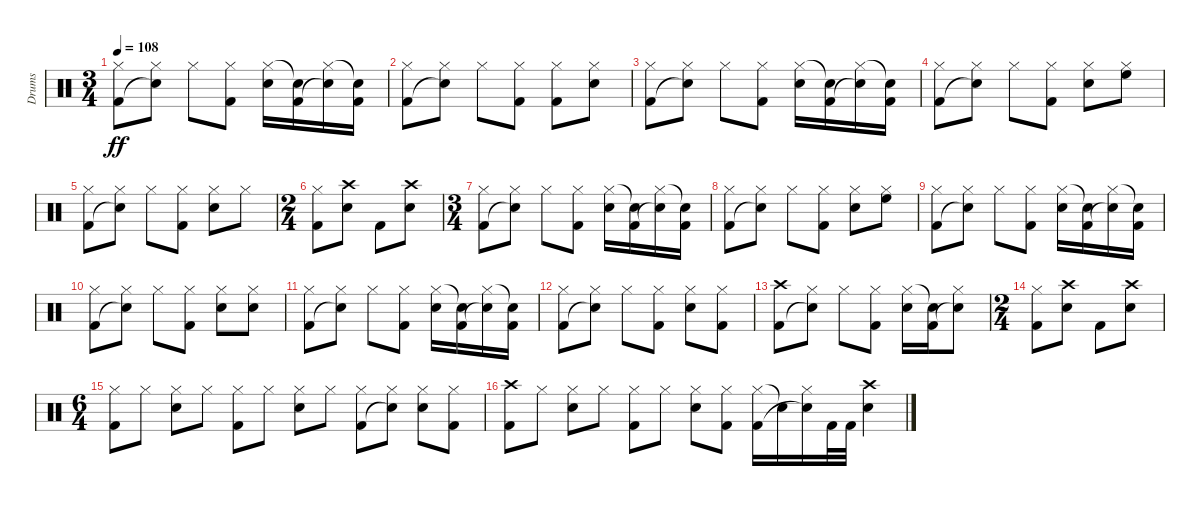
\track ("Drums" "Drums") {instrument percussion}
\staff {score}
\articulation defaults
\ts (3 4)
\tempo 108
\clef neutral
\ks c
("Hi-Hat (closed)" "Kick (hit) 2").8{dy ff} ("Hi-Hat (closed)" "Snare (hit)"{t}).8 "Hi-Hat (closed)".8 ("Hi-Hat (closed)" "Kick (hit) 2").8 ("Hi-Hat (closed)" "Snare (hit) 2").16 ("Snare (hit)"{t} "Kick (hit) 2").16 ("Hi-Hat (closed)" "Snare (hit)"{t}).16 ("Snare (hit)"{t} "Kick (hit) 2").16 |
("Hi-Hat (closed)" "Kick (hit) 2").8 ("Hi-Hat (closed)" "Snare (hit)"{t}).8 "Hi-Hat (closed)".8 ("Hi-Hat (closed)" "Kick (hit) 2").8 ("Hi-Hat (closed)" "Kick (hit) 2").8 ("Hi-Hat (closed)" "Snare (hit) 2").8 |
("Hi-Hat (closed)" "Kick (hit) 2").8 ("Hi-Hat (closed)" "Snare (hit)"{t}).8 "Hi-Hat (closed)".8 ("Hi-Hat (closed)" "Kick (hit) 2").8 ("Hi-Hat (closed)" "Snare (hit) 2").16 ("Snare (hit)"{t} "Kick (hit) 2").16 ("Hi-Hat (closed)" "Snare (hit)"{t}).16 ("Snare (hit)"{t} "Kick (hit) 2").16 |
("Hi-Hat (closed)" "Kick (hit) 2").8 ("Hi-Hat (closed)" "Snare (hit)"{t}).8 "Hi-Hat (closed)".8 ("Hi-Hat (closed)" "Kick (hit) 2").8 ("Hi-Hat (closed)" "Snare (hit) 2").8 ("Hi-Hat (closed)" "High Floor Tom (hit)").8 |
("Hi-Hat (closed)" "Kick (hit) 2").8 ("Hi-Hat (closed)" "Snare (hit)"{t}).8 "Hi-Hat (closed)".8 ("Hi-Hat (closed)" "Kick (hit) 2").8 ("Hi-Hat (closed)" "Snare (hit) 2").8 "Hi-Hat (closed)".8 |
\ts (2 4)
("Hi-Hat (closed)" "Kick (hit) 2").8 ("Crash high (hit)" "Snare (hit) 2").8 "Kick (hit) 2".8 ("Crash high (hit)" "Snare (hit) 2").8 |
\ts (3 4)
("Hi-Hat (closed)" "Kick (hit) 2").8 ("Hi-Hat (closed)" "Snare (hit)"{t}).8 "Hi-Hat (closed)".8 ("Hi-Hat (closed)" "Kick (hit) 2").8 ("Hi-Hat (closed)" "Snare (hit) 2").16 ("Snare (hit)"{t} "Kick (hit) 2").16 ("Hi-Hat (closed)" "Snare (hit)"{t}).16 ("Snare (hit)"{t} "Kick (hit) 2").16 |
("Hi-Hat (closed)" "Kick (hit) 2").8 ("Hi-Hat (closed)" "Snare (hit)"{t}).8 "Hi-Hat (closed)".8 ("Hi-Hat (closed)" "Kick (hit) 2").8 ("Hi-Hat (closed)" "Snare (hit) 2").8 ("Hi-Hat (closed)" "High Floor Tom (hit)").8 |
("Hi-Hat (closed)" "Kick (hit) 2").8 ("Hi-Hat (closed)" "Snare (hit)"{t}).8 "Hi-Hat (closed)".8 ("Hi-Hat (closed)" "Kick (hit) 2").8 ("Hi-Hat (closed)" "Snare (hit) 2").16 ("Snare (hit)"{t} "Kick (hit) 2").16 ("Hi-Hat (closed)" "Snare (hit)"{t}).16 ("Snare (hit)"{t} "Kick (hit) 2").16 |
("Hi-Hat (closed)" "Kick (hit) 2").8 ("Hi-Hat (closed)" "Snare (hit)"{t}).8 "Hi-Hat (closed)".8 ("Hi-Hat (closed)" "Kick (hit) 2").8 ("Hi-Hat (closed)" "Snare (hit) 2").8 ("Hi-Hat (closed)" "Snare (hit) 2").8 |
("Hi-Hat (closed)" "Kick (hit) 2").8 ("Hi-Hat (closed)" "Snare (hit)"{t}).8 "Hi-Hat (closed)".8 ("Hi-Hat (closed)" "Kick (hit) 2").8 ("Hi-Hat (closed)" "Snare (hit) 2").16 ("Snare (hit)"{t} "Kick (hit) 2").16 ("Hi-Hat (closed)" "Snare (hit)"{t}).16 ("Snare (hit)"{t} "Kick (hit) 2").16 |
("Hi-Hat (closed)" "Kick (hit) 2").8 ("Hi-Hat (closed)" "Snare (hit)"{t}).8 "Hi-Hat (closed)".8 ("Hi-Hat (closed)" "Kick (hit) 2").8 ("Hi-Hat (closed)" "Snare (hit) 2").8 ("Hi-Hat (closed)" "Kick (hit) 2").8 |
("Crash high (hit)" "Kick (hit) 2").8 ("Hi-Hat (closed)" "Snare (hit)"{t}).8 "Hi-Hat (closed)".8 ("Hi-Hat (closed)" "Kick (hit) 2").8 ("Hi-Hat (closed)" "Snare (hit) 2").16 ("Snare (hit)"{t} "Kick (hit) 2").16 ("Hi-Hat (closed)" "Snare (hit)"{t}).8 |
\ts (2 4)
("Hi-Hat (closed)" "Kick (hit) 2").8 ("Crash high (hit)" "Snare (hit) 2").8 "Kick (hit) 2".8 ("Crash high (hit)" "Snare (hit) 2").8 |
\ts (6 4)
("Hi-Hat (closed)" "Kick (hit) 2").8 "Hi-Hat (closed)".8 ("Hi-Hat (closed)" "Snare (hit) 2").8 "Hi-Hat (closed)".8 ("Hi-Hat (closed)" "Kick (hit) 2").8 "Hi-Hat (closed)".8 ("Hi-Hat (closed)" "Snare (hit) 2").8 "Hi-Hat (closed)".8 ("Hi-Hat (closed)" "Kick (hit) 2").8 ("Hi-Hat (closed)" "Snare (hit)"{t}).8 ("Hi-Hat (closed)" "Snare (hit) 2").8 ("Hi-Hat (closed)" "Kick (hit) 2").8 |
("Crash high (hit)" "Kick (hit) 2").8 "Hi-Hat (closed)".8 ("Hi-Hat (closed)" "Snare (hit) 2").8 "Hi-Hat (closed)".8 ("Hi-Hat (closed)" "Kick (hit) 2").8 "Hi-Hat (closed)".8 ("Hi-Hat (closed)" "Snare (hit) 2").8 ("Hi-Hat (closed)" "Kick (hit) 2").8 ("Hi-Hat (closed)" "Kick (hit) 2").16 "Snare (hit)"{t}.16 ("Hi-Hat (closed)" "Snare (hit)"{t}).16 "Kick (hit) 2".32 "Kick (hit) 2".32 ("Crash high (hit)" "Snare (hit) 2").4
